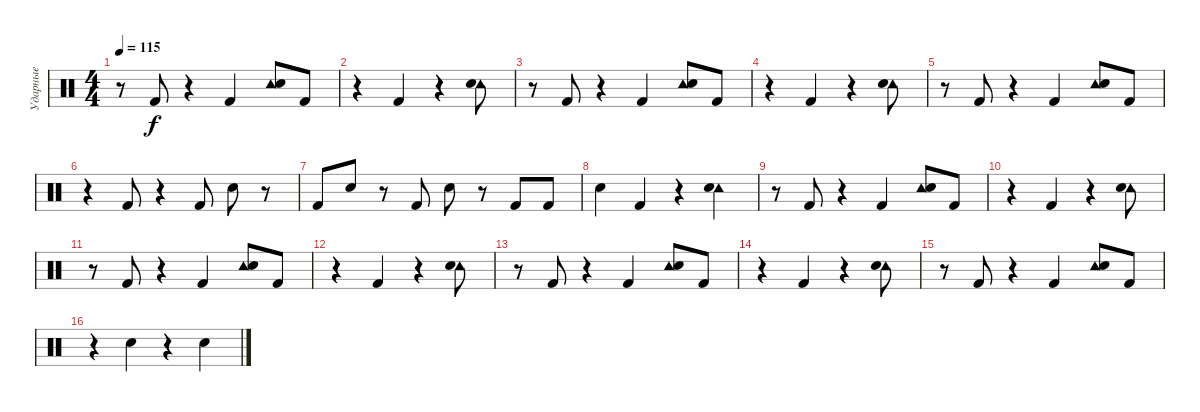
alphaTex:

\track ("Ударные" "Ударные") {instrument percussion}
\staff
\articulation defaults
\ts (4 4)
\tempo 115
\clef neutral
\ks c
r.8{dy f} "Kick (hit) 2".8 r.4 "Kick (hit) 2".4 ("Tambourine (hit)" "Electric Snare (hit)").8 "Kick (hit) 2".8 |
r.4 "Kick (hit) 2".4 r.4 ("Tambourine (hit)" "Electric Snare (hit)").8 |
r.8 "Kick (hit) 2".8 r.4 "Kick (hit) 2".4 ("Tambourine (hit)" "Electric Snare (hit)").8 "Kick (hit) 2".8 |
r.4 "Kick (hit) 2".4 r.4 ("Tambourine (hit)" "Electric Snare (hit)").8 |
r.8 "Kick (hit) 2".8 r.4 "Kick (hit) 2".4 ("Tambourine (hit)" "Electric Snare (hit)").8 "Kick (hit) 2".8 |
r.4 "Kick (hit) 2".8 r.4 "Kick (hit) 2".8 "Electric Snare (hit)".8 r.8 |
"Kick (hit) 2".8 "Electric Snare (hit)".8 r.8 "Kick (hit) 2".8 "Electric Snare (hit)".8 r.8 "Kick (hit) 2".8 "Kick (hit) 2".8 |
"Electric Snare (hit)".4 "Kick (hit) 2".4 r.4 ("Tambourine (hit)" "Electric Snare (hit)").4 |
r.8 "Kick (hit) 2".8 r.4 "Kick (hit) 2".4 ("Tambourine (hit)" "Electric Snare (hit)").8 "Kick (hit) 2".8 |
r.4 "Kick (hit) 2".4 r.4 ("Tambourine (hit)" "Electric Snare (hit)").8 |
r.8 "Kick (hit) 2".8 r.4 "Kick (hit) 2".4 ("Tambourine (hit)" "Electric Snare (hit)").8 "Kick (hit) 2".8 |
r.4 "Kick (hit) 2".4 r.4 ("Tambourine (hit)" "Electric Snare (hit)").8 |
r.8 "Kick (hit) 2".8 r.4 "Kick (hit) 2".4 ("Tambourine (hit)" "Electric Snare (hit)").8 "Kick (hit) 2".8 |
r.4 "Kick (hit) 2".4 r.4 ("Tambourine (hit)" "Electric Snare (hit)").8 |
r.8 "Kick (hit) 2".8 r.4 "Kick (hit) 2".4 ("Tambourine (hit)" "Electric Snare (hit)").8 "Kick (hit) 2".8 |
r.4 "Electric Snare (hit)".4 r.4 "Electric Snare (hit)".4
